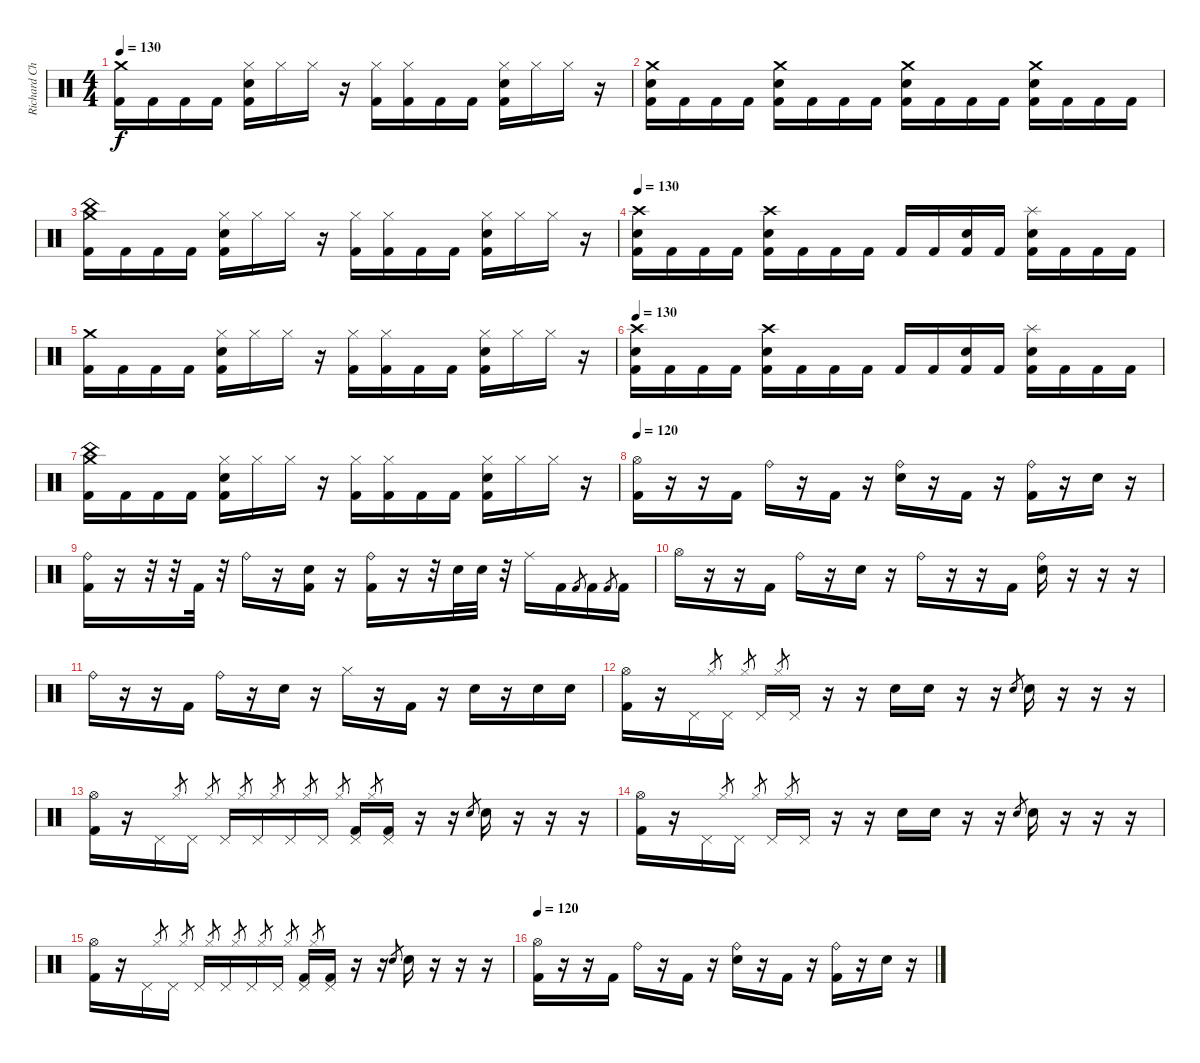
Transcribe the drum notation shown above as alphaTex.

\track ("Richard Christy" "Richard Ch") {instrument percussion}
\staff {score}
\articulation defaults
\ts (4 4)
\tempo 130
\clef neutral
\ks c
("Crash medium (hit)" "Kick (hit) 2").16{dy f} "Kick (hit) 2".16 "Kick (hit) 2".16 "Kick (hit) 2".16 ("Hi-Hat (closed)" "Snare (hit) 2" "Kick (hit) 2").16 "Hi-Hat (closed)".16 "Hi-Hat (closed)".16 r.16 ("Hi-Hat (closed)" "Kick (hit) 2").16 ("Hi-Hat (closed)" "Kick (hit) 2").16 "Kick (hit) 2".16 "Kick (hit) 2".16 ("Hi-Hat (closed)" "Snare (hit) 2" "Kick (hit) 2").16 "Hi-Hat (closed)".16 "Hi-Hat (closed)".16 r.16 |
("Crash medium (hit)" "Snare (hit) 2" "Kick (hit) 2").16 "Kick (hit) 2".16 "Kick (hit) 2".16 "Kick (hit) 2".16 ("Crash medium (hit)" "Snare (hit) 2" "Kick (hit) 2").16 "Kick (hit) 2".16 "Kick (hit) 2".16 "Kick (hit) 2".16 ("Crash medium (hit)" "Snare (hit) 2" "Kick (hit) 2").16 "Kick (hit) 2".16 "Kick (hit) 2".16 "Kick (hit) 2".16 ("Crash medium (hit)" "Snare (hit) 2" "Kick (hit) 2").16 "Kick (hit) 2".16 "Kick (hit) 2".16 "Kick (hit) 2".16 |
("Crash medium (hit)" "China (hit)" "Kick (hit) 2").16 "Kick (hit) 2".16 "Kick (hit) 2".16 "Kick (hit) 2".16 ("Hi-Hat (closed)" "Snare (hit) 2" "Kick (hit) 2").16 "Hi-Hat (closed)".16 "Hi-Hat (closed)".16 r.16 ("Hi-Hat (closed)" "Kick (hit) 2").16 ("Hi-Hat (closed)" "Kick (hit) 2").16 "Kick (hit) 2".16 "Kick (hit) 2".16 ("Hi-Hat (closed)" "Snare (hit) 2" "Kick (hit) 2").16 "Hi-Hat (closed)".16 "Hi-Hat (closed)".16 r.16 |
\tempo 130
("Crash high (hit)" "Snare (hit) 2" "Kick (hit) 2").16 "Kick (hit) 2".16 "Kick (hit) 2".16 "Kick (hit) 2".16 ("Crash high (hit)" "Snare (hit) 2" "Kick (hit) 2").16 "Kick (hit) 2".16 "Kick (hit) 2".16 "Kick (hit) 2".16 "Kick (hit) 2".16 "Kick (hit) 2".16 ("Snare (hit) 2" "Kick (hit) 2").16 "Kick (hit) 2".16 ("Splash (hit)" "Snare (hit) 2" "Kick (hit) 2").16 "Kick (hit) 2".16 "Kick (hit) 2".16 "Kick (hit) 2".16 |
("Crash medium (hit)" "Kick (hit) 2").16 "Kick (hit) 2".16 "Kick (hit) 2".16 "Kick (hit) 2".16 ("Hi-Hat (closed)" "Snare (hit) 2" "Kick (hit) 2").16 "Hi-Hat (closed)".16 "Hi-Hat (closed)".16 r.16 ("Hi-Hat (closed)" "Kick (hit) 2").16 ("Hi-Hat (closed)" "Kick (hit) 2").16 "Kick (hit) 2".16 "Kick (hit) 2".16 ("Hi-Hat (closed)" "Snare (hit) 2" "Kick (hit) 2").16 "Hi-Hat (closed)".16 "Hi-Hat (closed)".16 r.16 |
\tempo 130
("Crash high (hit)" "Snare (hit) 2" "Kick (hit) 2").16 "Kick (hit) 2".16 "Kick (hit) 2".16 "Kick (hit) 2".16 ("Crash high (hit)" "Snare (hit) 2" "Kick (hit) 2").16 "Kick (hit) 2".16 "Kick (hit) 2".16 "Kick (hit) 2".16 "Kick (hit) 2".16 "Kick (hit) 2".16 ("Snare (hit) 2" "Kick (hit) 2").16 "Kick (hit) 2".16 ("Splash (hit)" "Snare (hit) 2" "Kick (hit) 2").16 "Kick (hit) 2".16 "Kick (hit) 2".16 "Kick (hit) 2".16 |
("Crash medium (hit)" "China (hit)" "Kick (hit) 2").16 "Kick (hit) 2".16 "Kick (hit) 2".16 "Kick (hit) 2".16 ("Hi-Hat (closed)" "Snare (hit) 2" "Kick (hit) 2").16 "Hi-Hat (closed)".16 "Hi-Hat (closed)".16 r.16 ("Hi-Hat (closed)" "Kick (hit) 2").16 ("Hi-Hat (closed)" "Kick (hit) 2").16 "Kick (hit) 2".16 "Kick (hit) 2".16 ("Hi-Hat (closed)" "Snare (hit) 2" "Kick (hit) 2").16 "Hi-Hat (closed)".16 "Hi-Hat (closed)".16 r.16 |
\tempo 120
("Hi-Hat (open)" "Kick (hit) 2").16 r.16 r.16 "Kick (hit) 2".16 "Ride (bell)".16 r.16 "Kick (hit) 2".16 r.16 ("Ride (bell)" "Snare (hit) 2").16 r.16 "Kick (hit) 2".16 r.16 ("Ride (bell)" "Kick (hit) 2").16 r.16 "Snare (hit) 2".16 r.16 |
("Ride (bell)" "Kick (hit) 2").16 r.16 r.32 r.32 "Kick (hit) 2".32 r.32 "Ride (bell)".16 r.16 ("Snare (hit) 2" "Kick (hit) 2").16 r.16 ("Ride (bell)" "Kick (hit) 2").16 r.16 r.32 "Snare (hit) 2".32 "Snare (hit) 2".32 r.32 "Ride (middle)".16 "Kick (hit) 2".16 "Kick (hit) 2".8{gr} "Kick (hit) 2".16 "Kick (hit) 2".8{gr} "Kick (hit) 2".16 |
"Hi-Hat (open)".16 r.16 r.16 "Kick (hit) 2".16 "Ride (bell)".16 r.16 "Snare (hit) 2".16 r.16 "Ride (bell)".16 r.16 r.16 "Kick (hit) 2".16 ("Ride (bell)" "Snare (hit) 2").16 r.16 r.16 r.16 |
"Ride (bell)".16 r.16 r.16 "Kick (hit) 2".16 "Ride (bell)".16 r.16 "Snare (hit) 2".16 r.16 "Hi-Hat (closed)".16 r.16 "Kick (hit) 2".16 r.16 "Snare (hit) 2".16 r.16 "Snare (hit) 2".16 "Snare (hit) 2".16 |
("Hi-Hat (open)" "Kick (hit) 2").16 r.16 "Pedal Hi-Hat (hit)".16 "Hi-Hat (closed)".8{gr} "Pedal Hi-Hat (hit)".16 "Hi-Hat (closed)".8{gr} "Pedal Hi-Hat (hit)".16 "Hi-Hat (closed)".8{gr} "Pedal Hi-Hat (hit)".16 r.16 r.16 "Snare (hit) 2".16 "Snare (hit) 2".16 r.16 r.16 "Snare (hit) 2".8{gr} "Snare (hit) 2".16 r.16 r.16 r.16 |
("Hi-Hat (open)" "Kick (hit) 2").16 r.16 "Pedal Hi-Hat (hit)".16 "Hi-Hat (closed)".8{gr} "Pedal Hi-Hat (hit)".16 "Hi-Hat (closed)".8{gr} "Pedal Hi-Hat (hit)".16 "Hi-Hat (closed)".8{gr} "Pedal Hi-Hat (hit)".16 "Hi-Hat (closed)".8{gr} "Pedal Hi-Hat (hit)".16 "Hi-Hat (closed)".8{gr} "Pedal Hi-Hat (hit)".16 "Hi-Hat (closed)".8{gr} ("Pedal Hi-Hat (hit)" "Kick (hit) 2").16 "Hi-Hat (closed)".8{gr} ("Pedal Hi-Hat (hit)" "Kick (hit) 2").16 r.16 r.16 "Snare (hit) 2".8{gr} "Snare (hit) 2".16 r.16 r.16 r.16 |
("Hi-Hat (open)" "Kick (hit) 2").16 r.16 "Pedal Hi-Hat (hit)".16 "Hi-Hat (closed)".8{gr} "Pedal Hi-Hat (hit)".16 "Hi-Hat (closed)".8{gr} "Pedal Hi-Hat (hit)".16 "Hi-Hat (closed)".8{gr} "Pedal Hi-Hat (hit)".16 r.16 r.16 "Snare (hit) 2".16 "Snare (hit) 2".16 r.16 r.16 "Snare (hit) 2".8{gr} "Snare (hit) 2".16 r.16 r.16 r.16 |
("Hi-Hat (open)" "Kick (hit) 2").16 r.16 "Pedal Hi-Hat (hit)".16 "Hi-Hat (closed)".8{gr} "Pedal Hi-Hat (hit)".16 "Hi-Hat (closed)".8{gr} "Pedal Hi-Hat (hit)".16 "Hi-Hat (closed)".8{gr} "Pedal Hi-Hat (hit)".16 "Hi-Hat (closed)".8{gr} "Pedal Hi-Hat (hit)".16 "Hi-Hat (closed)".8{gr} "Pedal Hi-Hat (hit)".16 "Hi-Hat (closed)".8{gr} ("Pedal Hi-Hat (hit)" "Kick (hit) 2").16 "Hi-Hat (closed)".8{gr} ("Pedal Hi-Hat (hit)" "Kick (hit) 2").16 r.16 r.16 "Snare (hit) 2".8{gr} "Snare (hit) 2".16 r.16 r.16 r.16 |
\tempo 120
("Hi-Hat (open)" "Kick (hit) 2").16 r.16 r.16 "Kick (hit) 2".16 "Ride (bell)".16 r.16 "Kick (hit) 2".16 r.16 ("Ride (bell)" "Snare (hit) 2").16 r.16 "Kick (hit) 2".16 r.16 ("Ride (bell)" "Kick (hit) 2").16 r.16 "Snare (hit) 2".16 r.16
